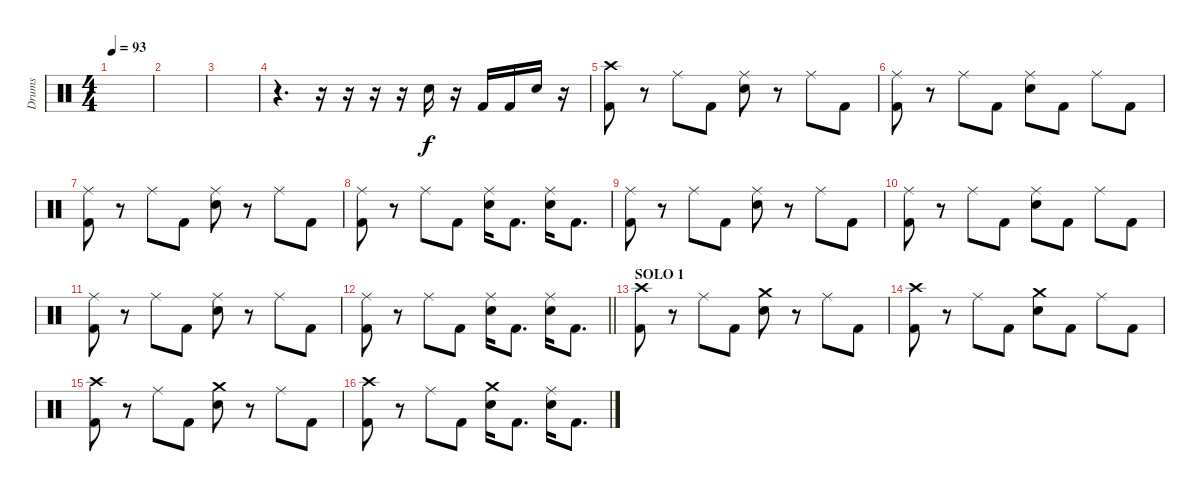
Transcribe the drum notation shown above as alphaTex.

\track ("Drums" "Drums") {instrument percussion}
\staff
\articulation defaults
\ts (4 4)
\section ("" "")
\tempo 93
\clef neutral
\ks c
|
|
|
r.4{d} r.16 r.16 r.16 r.16 "Snare (hit) 2".16 r.16 "Kick (hit) 2".16 "Kick (hit) 2".16 "Snare (hit) 2".16 r.16 |
("Crash high (hit)" "Kick (hit) 2").8 r.8 "Ride (middle)".8 "Kick (hit) 2".8 ("Ride (middle)" "Snare (hit) 2").8 r.8 "Ride (middle)".8 "Kick (hit) 2".8 |
("Ride (middle)" "Kick (hit) 2").8 r.8 "Ride (middle)".8 "Kick (hit) 2".8 ("Ride (middle)" "Snare (hit) 2").8 "Kick (hit) 2".8 "Ride (middle)".8 "Kick (hit) 2".8 |
("Ride (middle)" "Kick (hit) 2").8 r.8 "Ride (middle)".8 "Kick (hit) 2".8 ("Ride (middle)" "Snare (hit) 2").8 r.8 "Ride (middle)".8 "Kick (hit) 2".8 |
("Ride (middle)" "Kick (hit) 2").8 r.8 "Ride (middle)".8 "Kick (hit) 2".8 ("Ride (middle)" "Snare (hit) 2").16 "Kick (hit) 2".8{d} ("Ride (middle)" "Snare (hit) 2").16 "Kick (hit) 2".8{d} |
("Ride (middle)" "Kick (hit) 2").8 r.8 "Ride (middle)".8 "Kick (hit) 2".8 ("Ride (middle)" "Snare (hit) 2").8 r.8 "Ride (middle)".8 "Kick (hit) 2".8 |
("Ride (middle)" "Kick (hit) 2").8 r.8 "Ride (middle)".8 "Kick (hit) 2".8 ("Ride (middle)" "Snare (hit) 2").8 "Kick (hit) 2".8 "Ride (middle)".8 "Kick (hit) 2".8 |
("Ride (middle)" "Kick (hit) 2").8 r.8 "Ride (middle)".8 "Kick (hit) 2".8 ("Ride (middle)" "Snare (hit) 2").8 r.8 "Ride (middle)".8 "Kick (hit) 2".8 |
\barLineRight lightlight
("Ride (middle)" "Kick (hit) 2").8 r.8 "Ride (middle)".8 "Kick (hit) 2".8 ("Ride (middle)" "Snare (hit) 2").16 "Kick (hit) 2".8{d} ("Ride (middle)" "Snare (hit) 2").16 "Kick (hit) 2".8{d} |
\section ("" "SOLO 1")
("Crash high (hit)" "Kick (hit) 2").8 r.8 "Ride (middle)".8 "Kick (hit) 2".8 ("Crash medium (hit)" "Snare (hit) 2").8 r.8 "Ride (middle)".8 "Kick (hit) 2".8 |
("Crash high (hit)" "Kick (hit) 2").8 r.8 "Ride (middle)".8 "Kick (hit) 2".8 ("Crash medium (hit)" "Snare (hit) 2").8 "Kick (hit) 2".8 "Ride (middle)".8 "Kick (hit) 2".8 |
("Crash high (hit)" "Kick (hit) 2").8 r.8 "Ride (middle)".8 "Kick (hit) 2".8 ("Crash medium (hit)" "Snare (hit) 2").8 r.8 "Ride (middle)".8 "Kick (hit) 2".8 |
("Crash high (hit)" "Kick (hit) 2").8 r.8 "Ride (middle)".8 "Kick (hit) 2".8 ("Crash medium (hit)" "Snare (hit) 2").16 "Kick (hit) 2".8{d} ("Ride (middle)" "Snare (hit) 2").16 "Kick (hit) 2".8{d}
